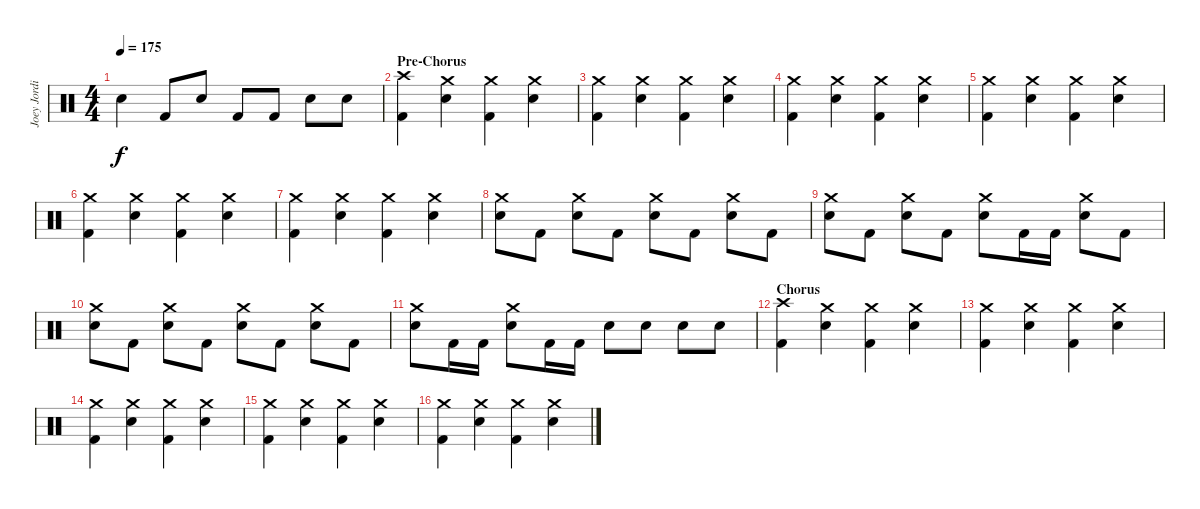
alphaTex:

\track ("Joey Jordison (Drums)" "Joey Jordi") {instrument percussion}
\staff {score}
\articulation defaults
\ts (4 4)
\tempo 175
\clef neutral
\ks c "Electric Snare (hit)".4{dy f} "Kick (hit) 2".8 "Electric Snare (hit)".8 "Kick (hit) 2".8 "Kick (hit) 2".8 "Electric Snare (hit)".8 "Electric Snare (hit)".8
|
\section ("" "Pre-Chorus")
("Crash high (hit)" "Kick (hit) 2").4 ("Crash medium (hit)" "Electric Snare (hit)").4 ("Crash medium (hit)" "Kick (hit) 2").4 ("Crash medium (hit)" "Electric Snare (hit)").4 |
("Crash medium (hit)" "Kick (hit) 2").4 ("Crash medium (hit)" "Electric Snare (hit)").4 ("Crash medium (hit)" "Kick (hit) 2").4 ("Crash medium (hit)" "Electric Snare (hit)").4 |
("Crash medium (hit)" "Kick (hit) 2").4 ("Crash medium (hit)" "Electric Snare (hit)").4 ("Crash medium (hit)" "Kick (hit) 2").4 ("Crash medium (hit)" "Electric Snare (hit)").4 |
("Crash medium (hit)" "Kick (hit) 2").4 ("Crash medium (hit)" "Electric Snare (hit)").4 ("Crash medium (hit)" "Kick (hit) 2").4 ("Crash medium (hit)" "Electric Snare (hit)").4 |
("Crash medium (hit)" "Kick (hit) 2").4 ("Crash medium (hit)" "Electric Snare (hit)").4 ("Crash medium (hit)" "Kick (hit) 2").4 ("Crash medium (hit)" "Electric Snare (hit)").4 |
("Crash medium (hit)" "Kick (hit) 2").4 ("Crash medium (hit)" "Electric Snare (hit)").4 ("Crash medium (hit)" "Kick (hit) 2").4 ("Crash medium (hit)" "Electric Snare (hit)").4 |
("Crash medium (hit)" "Electric Snare (hit)").8 "Kick (hit) 2".8 ("Crash medium (hit)" "Electric Snare (hit)").8 "Kick (hit) 2".8 ("Crash medium (hit)" "Electric Snare (hit)").8 "Kick (hit) 2".8 ("Crash medium (hit)" "Electric Snare (hit)").8 "Kick (hit) 2".8 |
("Crash medium (hit)" "Electric Snare (hit)").8 "Kick (hit) 2".8 ("Crash medium (hit)" "Electric Snare (hit)").8 "Kick (hit) 2".8 ("Crash medium (hit)" "Electric Snare (hit)").8 "Kick (hit) 2".16 "Kick (hit) 2".16 ("Crash medium (hit)" "Electric Snare (hit)").8 "Kick (hit) 2".8 |
("Crash medium (hit)" "Electric Snare (hit)").8 "Kick (hit) 2".8 ("Crash medium (hit)" "Electric Snare (hit)").8 "Kick (hit) 2".8 ("Crash medium (hit)" "Electric Snare (hit)").8 "Kick (hit) 2".8 ("Crash medium (hit)" "Electric Snare (hit)").8 "Kick (hit) 2".8 |
("Crash medium (hit)" "Electric Snare (hit)").8 "Kick (hit) 2".16 "Kick (hit) 2".16 ("Crash medium (hit)" "Electric Snare (hit)").8 "Kick (hit) 2".16 "Kick (hit) 2".16 "Electric Snare (hit)".8 "Electric Snare (hit)".8 "Electric Snare (hit)".8 "Electric Snare (hit)".8 |
\section ("" "Chorus")
("Crash high (hit)" "Kick (hit) 2").4 ("Crash medium (hit)" "Electric Snare (hit)").4 ("Crash medium (hit)" "Kick (hit) 2").4 ("Crash medium (hit)" "Electric Snare (hit)").4 |
("Crash medium (hit)" "Kick (hit) 2").4 ("Crash medium (hit)" "Electric Snare (hit)").4 ("Crash medium (hit)" "Kick (hit) 2").4 ("Crash medium (hit)" "Electric Snare (hit)").4 |
("Crash medium (hit)" "Kick (hit) 2").4 ("Crash medium (hit)" "Electric Snare (hit)").4 ("Crash medium (hit)" "Kick (hit) 2").4 ("Crash medium (hit)" "Electric Snare (hit)").4 |
("Crash medium (hit)" "Kick (hit) 2").4 ("Crash medium (hit)" "Electric Snare (hit)").4 ("Crash medium (hit)" "Kick (hit) 2").4 ("Crash medium (hit)" "Electric Snare (hit)").4 |
("Crash medium (hit)" "Kick (hit) 2").4 ("Crash medium (hit)" "Electric Snare (hit)").4 ("Crash medium (hit)" "Kick (hit) 2").4 ("Crash medium (hit)" "Electric Snare (hit)").4
